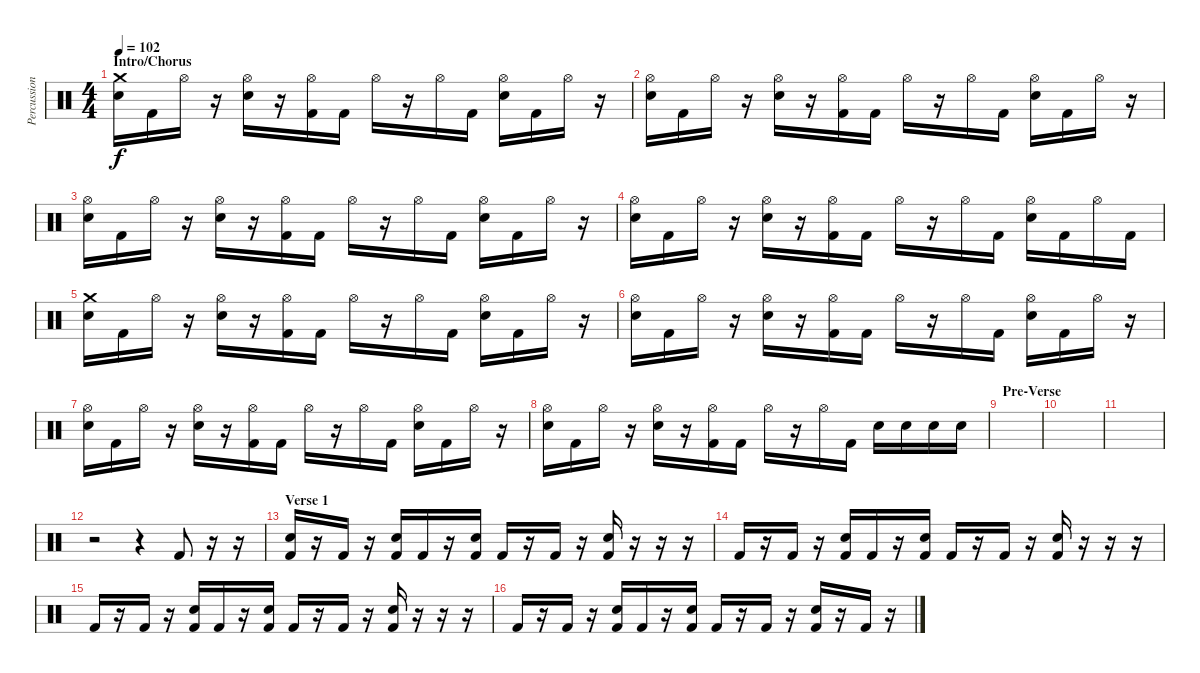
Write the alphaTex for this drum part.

\track ("Percussion" "Percussion") {instrument percussion}
\staff {score}
\articulation defaults
\ts (4 4)
\section ("" "Intro/Chorus")
\tempo 102
\clef neutral
\ks c
("Crash medium (hit)" "Snare (hit) 2").16{dy f} "Kick (hit) 2".16 "Hi-Hat (open)".16 r.16 ("Hi-Hat (open)" "Snare (hit) 2").16 r.16 ("Hi-Hat (open)" "Kick (hit) 2").16 "Kick (hit) 2".16 "Hi-Hat (open)".16 r.16 "Hi-Hat (open)".16 "Kick (hit) 2".16 ("Hi-Hat (open)" "Snare (hit) 2").16 "Kick (hit) 2".16 "Hi-Hat (open)".16 r.16 |
("Hi-Hat (open)" "Snare (hit) 2").16 "Kick (hit) 2".16 "Hi-Hat (open)".16 r.16 ("Hi-Hat (open)" "Snare (hit) 2").16 r.16 ("Hi-Hat (open)" "Kick (hit) 2").16 "Kick (hit) 2".16 "Hi-Hat (open)".16 r.16 "Hi-Hat (open)".16 "Kick (hit) 2".16 ("Hi-Hat (open)" "Snare (hit) 2").16 "Kick (hit) 2".16 "Hi-Hat (open)".16 r.16 |
("Hi-Hat (open)" "Snare (hit) 2").16 "Kick (hit) 2".16 "Hi-Hat (open)".16 r.16 ("Hi-Hat (open)" "Snare (hit) 2").16 r.16 ("Hi-Hat (open)" "Kick (hit) 2").16 "Kick (hit) 2".16 "Hi-Hat (open)".16 r.16 "Hi-Hat (open)".16 "Kick (hit) 2".16 ("Hi-Hat (open)" "Snare (hit) 2").16 "Kick (hit) 2".16 "Hi-Hat (open)".16 r.16 |
("Hi-Hat (open)" "Snare (hit) 2").16 "Kick (hit) 2".16 "Hi-Hat (open)".16 r.16 ("Hi-Hat (open)" "Snare (hit) 2").16 r.16 ("Hi-Hat (open)" "Kick (hit) 2").16 "Kick (hit) 2".16 "Hi-Hat (open)".16 r.16 "Hi-Hat (open)".16 "Kick (hit) 2".16 ("Hi-Hat (open)" "Snare (hit) 2").16 "Kick (hit) 2".16 "Hi-Hat (open)".16 "Kick (hit) 2".16 |
("Crash medium (hit)" "Snare (hit) 2").16 "Kick (hit) 2".16 "Hi-Hat (open)".16 r.16 ("Hi-Hat (open)" "Snare (hit) 2").16 r.16 ("Hi-Hat (open)" "Kick (hit) 2").16 "Kick (hit) 2".16 "Hi-Hat (open)".16 r.16 "Hi-Hat (open)".16 "Kick (hit) 2".16 ("Hi-Hat (open)" "Snare (hit) 2").16 "Kick (hit) 2".16 "Hi-Hat (open)".16 r.16 |
("Hi-Hat (open)" "Snare (hit) 2").16 "Kick (hit) 2".16 "Hi-Hat (open)".16 r.16 ("Hi-Hat (open)" "Snare (hit) 2").16 r.16 ("Hi-Hat (open)" "Kick (hit) 2").16 "Kick (hit) 2".16 "Hi-Hat (open)".16 r.16 "Hi-Hat (open)".16 "Kick (hit) 2".16 ("Hi-Hat (open)" "Snare (hit) 2").16 "Kick (hit) 2".16 "Hi-Hat (open)".16 r.16 |
("Hi-Hat (open)" "Snare (hit) 2").16 "Kick (hit) 2".16 "Hi-Hat (open)".16 r.16 ("Hi-Hat (open)" "Snare (hit) 2").16 r.16 ("Hi-Hat (open)" "Kick (hit) 2").16 "Kick (hit) 2".16 "Hi-Hat (open)".16 r.16 "Hi-Hat (open)".16 "Kick (hit) 2".16 ("Hi-Hat (open)" "Snare (hit) 2").16 "Kick (hit) 2".16 "Hi-Hat (open)".16 r.16 |
("Hi-Hat (open)" "Snare (hit) 2").16 "Kick (hit) 2".16 "Hi-Hat (open)".16 r.16 ("Hi-Hat (open)" "Snare (hit) 2").16 r.16 ("Hi-Hat (open)" "Kick (hit) 2").16 "Kick (hit) 2".16 "Hi-Hat (open)".16 r.16 "Hi-Hat (open)".16 "Kick (hit) 2".16 "Snare (hit) 2".16 "Snare (hit) 2".16 "Snare (hit) 2".16 "Snare (hit) 2".16 |
\section ("" "Pre-Verse ")
|
|
|
r.2 r.4 "Kick (hit) 2".8 r.16 r.16 |
\section ("" "Verse 1")
("Snare (hit) 2" "Kick (hit) 2").16 r.16 "Kick (hit) 2".16 r.16 ("Snare (hit) 2" "Kick (hit) 2").16 "Kick (hit) 2".16 r.16 ("Snare (hit) 2" "Kick (hit) 2").16 "Kick (hit) 2".16 r.16 "Kick (hit) 2".16 r.16 ("Snare (hit) 2" "Kick (hit) 2").16 r.16 r.16 r.16 |
"Kick (hit) 2".16 r.16 "Kick (hit) 2".16 r.16 ("Snare (hit) 2" "Kick (hit) 2").16 "Kick (hit) 2".16 r.16 ("Snare (hit) 2" "Kick (hit) 2").16 "Kick (hit) 2".16 r.16 "Kick (hit) 2".16 r.16 ("Snare (hit) 2" "Kick (hit) 2").16 r.16 r.16 r.16 |
"Kick (hit) 2".16 r.16 "Kick (hit) 2".16 r.16 ("Snare (hit) 2" "Kick (hit) 2").16 "Kick (hit) 2".16 r.16 ("Snare (hit) 2" "Kick (hit) 2").16 "Kick (hit) 2".16 r.16 "Kick (hit) 2".16 r.16 ("Snare (hit) 2" "Kick (hit) 2").16 r.16 r.16 r.16 |
"Kick (hit) 2".16 r.16 "Kick (hit) 2".16 r.16 ("Snare (hit) 2" "Kick (hit) 2").16 "Kick (hit) 2".16 r.16 ("Snare (hit) 2" "Kick (hit) 2").16 "Kick (hit) 2".16 r.16 "Kick (hit) 2".16 r.16 ("Snare (hit) 2" "Kick (hit) 2").16 r.16 "Kick (hit) 2".16 r.16
